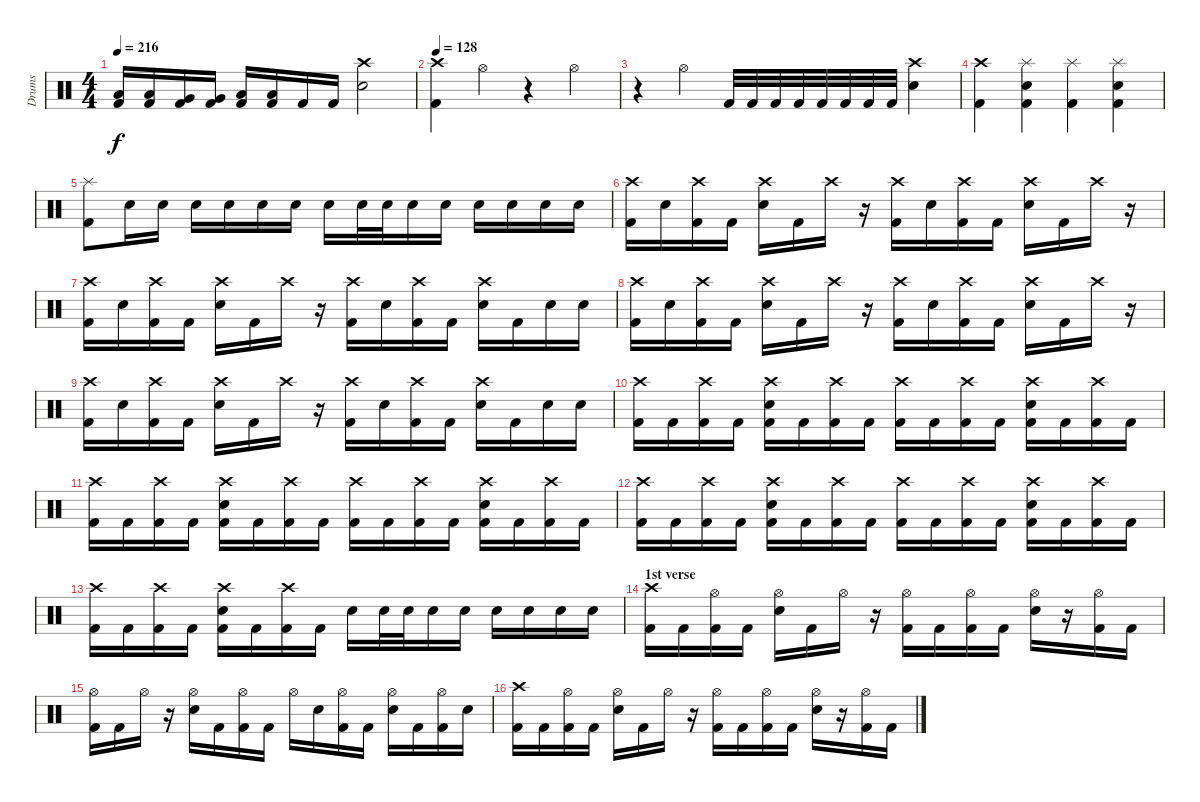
\track ("Drums" "Drums") {instrument percussion}
\staff {score}
\articulation defaults
\ts (4 4)
\tempo 216
\clef neutral
\ks c
("Low Tom (hit)" "Kick (hit) 2").16{dy f} ("Low Tom (hit)" "Kick (hit) 2").16 ("Very Low Tom (hit)" "Kick (hit) 2").16 ("Very Low Tom (hit)" "Kick (hit) 2").16 ("Low Floor Tom (hit)" "Kick (hit) 2").16 ("Low Floor Tom (hit)" "Kick (hit) 2").16 "Kick (hit) 2".16 "Kick (hit) 2".16 ("Crash high (hit)" "Electric Snare (hit)").2 |
\tempo 128
("Crash high (hit)" "Kick (hit) 2").4 "Hi-Hat (open)".4 r.4 "Hi-Hat (open)".4 |
r.4 "Hi-Hat (open)".4 "Kick (hit) 2".32 "Kick (hit) 2".32 "Kick (hit) 2".32 "Kick (hit) 2".32 "Kick (hit) 2".32 "Kick (hit) 2".32 "Kick (hit) 2".32 "Kick (hit) 2".32 ("Crash high (hit)" "Electric Snare (hit)").4 |
("Crash high (hit)" "Kick (hit) 2").4 ("Splash (hit)" "Electric Snare (hit)" "Kick (hit) 2").4 ("Splash (hit)" "Kick (hit) 2").4 ("Splash (hit)" "Electric Snare (hit)" "Kick (hit) 2").4 |
("Splash (hit)" "Kick (hit) 2").8 "Electric Snare (hit)".16 "Electric Snare (hit)".16 "Electric Snare (hit)".16 "Electric Snare (hit)".16 "Electric Snare (hit)".16 "Electric Snare (hit)".16 "Electric Snare (hit)".16 "Electric Snare (hit)".32 "Electric Snare (hit)".32 "Electric Snare (hit)".16 "Electric Snare (hit)".16 "Electric Snare (hit)".16 "Electric Snare (hit)".16 "Electric Snare (hit)".16 "Electric Snare (hit)".16 |
("Crash high (hit)" "Kick (hit) 2").16 "Electric Snare (hit)".16 ("Crash high (hit)" "Kick (hit) 2").16 "Kick (hit) 2".16 ("Crash high (hit)" "Electric Snare (hit)").16 "Kick (hit) 2".16 "Crash high (hit)".16 r.16 ("Crash high (hit)" "Kick (hit) 2").16 "Electric Snare (hit)".16 ("Crash high (hit)" "Kick (hit) 2").16 "Kick (hit) 2".16 ("Crash high (hit)" "Electric Snare (hit)").16 "Kick (hit) 2".16 "Crash high (hit)".16 r.16 |
("Crash high (hit)" "Kick (hit) 2").16 "Electric Snare (hit)".16 ("Crash high (hit)" "Kick (hit) 2").16 "Kick (hit) 2".16 ("Crash high (hit)" "Electric Snare (hit)").16 "Kick (hit) 2".16 "Crash high (hit)".16 r.16 ("Crash high (hit)" "Kick (hit) 2").16 "Electric Snare (hit)".16 ("Crash high (hit)" "Kick (hit) 2").16 "Kick (hit) 2".16 ("Crash high (hit)" "Electric Snare (hit)").16 "Kick (hit) 2".16 "Electric Snare (hit)".16 "Electric Snare (hit)".16 |
("Crash high (hit)" "Kick (hit) 2").16 "Electric Snare (hit)".16 ("Crash high (hit)" "Kick (hit) 2").16 "Kick (hit) 2".16 ("Crash high (hit)" "Electric Snare (hit)").16 "Kick (hit) 2".16 "Crash high (hit)".16 r.16 ("Crash high (hit)" "Kick (hit) 2").16 "Electric Snare (hit)".16 ("Crash high (hit)" "Kick (hit) 2").16 "Kick (hit) 2".16 ("Crash high (hit)" "Electric Snare (hit)").16 "Kick (hit) 2".16 "Crash high (hit)".16 r.16 |
("Crash high (hit)" "Kick (hit) 2").16 "Electric Snare (hit)".16 ("Crash high (hit)" "Kick (hit) 2").16 "Kick (hit) 2".16 ("Crash high (hit)" "Electric Snare (hit)").16 "Kick (hit) 2".16 "Crash high (hit)".16 r.16 ("Crash high (hit)" "Kick (hit) 2").16 "Electric Snare (hit)".16 ("Crash high (hit)" "Kick (hit) 2").16 "Kick (hit) 2".16 ("Crash high (hit)" "Electric Snare (hit)").16 "Kick (hit) 2".16 "Electric Snare (hit)".16 "Electric Snare (hit)".16 |
("Crash high (hit)" "Kick (hit) 2").16 "Kick (hit) 2".16 ("Crash high (hit)" "Kick (hit) 2").16 "Kick (hit) 2".16 ("Crash high (hit)" "Electric Snare (hit)" "Kick (hit) 2").16 "Kick (hit) 2".16 ("Crash high (hit)" "Kick (hit) 2").16 "Kick (hit) 2".16 ("Crash high (hit)" "Kick (hit) 2").16 "Kick (hit) 2".16 ("Crash high (hit)" "Kick (hit) 2").16 "Kick (hit) 2".16 ("Crash high (hit)" "Electric Snare (hit)" "Kick (hit) 2").16 "Kick (hit) 2".16 ("Crash high (hit)" "Kick (hit) 2").16 "Kick (hit) 2".16 |
("Crash high (hit)" "Kick (hit) 2").16 "Kick (hit) 2".16 ("Crash high (hit)" "Kick (hit) 2").16 "Kick (hit) 2".16 ("Crash high (hit)" "Electric Snare (hit)" "Kick (hit) 2").16 "Kick (hit) 2".16 ("Crash high (hit)" "Kick (hit) 2").16 "Kick (hit) 2".16 ("Crash high (hit)" "Kick (hit) 2").16 "Kick (hit) 2".16 ("Crash high (hit)" "Kick (hit) 2").16 "Kick (hit) 2".16 ("Crash high (hit)" "Electric Snare (hit)" "Kick (hit) 2").16 "Kick (hit) 2".16 ("Crash high (hit)" "Kick (hit) 2").16 "Kick (hit) 2".16 |
("Crash high (hit)" "Kick (hit) 2").16 "Kick (hit) 2".16 ("Crash high (hit)" "Kick (hit) 2").16 "Kick (hit) 2".16 ("Crash high (hit)" "Electric Snare (hit)" "Kick (hit) 2").16 "Kick (hit) 2".16 ("Crash high (hit)" "Kick (hit) 2").16 "Kick (hit) 2".16 ("Crash high (hit)" "Kick (hit) 2").16 "Kick (hit) 2".16 ("Crash high (hit)" "Kick (hit) 2").16 "Kick (hit) 2".16 ("Crash high (hit)" "Electric Snare (hit)" "Kick (hit) 2").16 "Kick (hit) 2".16 ("Crash high (hit)" "Kick (hit) 2").16 "Kick (hit) 2".16 |
("Crash high (hit)" "Kick (hit) 2").16 "Kick (hit) 2".16 ("Crash high (hit)" "Kick (hit) 2").16 "Kick (hit) 2".16 ("Crash high (hit)" "Electric Snare (hit)" "Kick (hit) 2").16 "Kick (hit) 2".16 ("Crash high (hit)" "Kick (hit) 2").16 "Kick (hit) 2".16 "Electric Snare (hit)".16 "Electric Snare (hit)".32 "Electric Snare (hit)".32 "Electric Snare (hit)".16 "Electric Snare (hit)".16 "Electric Snare (hit)".16 "Electric Snare (hit)".16 "Electric Snare (hit)".16 "Electric Snare (hit)".16 |
\section ("" "1st verse")
("Crash high (hit)" "Kick (hit) 2").16 "Kick (hit) 2".16 ("Hi-Hat (open)" "Kick (hit) 2").16 "Kick (hit) 2".16 ("Hi-Hat (open)" "Electric Snare (hit)").16 "Kick (hit) 2".16 "Hi-Hat (open)".16 r.16 ("Hi-Hat (open)" "Kick (hit) 2").16 "Kick (hit) 2".16 ("Hi-Hat (open)" "Kick (hit) 2").16 "Kick (hit) 2".16 ("Hi-Hat (open)" "Electric Snare (hit)").16 r.16 ("Hi-Hat (open)" "Kick (hit) 2").16 "Kick (hit) 2".16 |
("Hi-Hat (open)" "Kick (hit) 2").16 "Kick (hit) 2".16 "Hi-Hat (open)".16 r.16 ("Hi-Hat (open)" "Electric Snare (hit)").16 "Kick (hit) 2".16 ("Hi-Hat (open)" "Kick (hit) 2").16 "Kick (hit) 2".16 "Hi-Hat (open)".16 "Electric Snare (hit)".16 ("Hi-Hat (open)" "Kick (hit) 2").16 "Kick (hit) 2".16 ("Hi-Hat (open)" "Electric Snare (hit)").16 "Kick (hit) 2".16 ("Hi-Hat (open)" "Kick (hit) 2").16 "Electric Snare (hit)".16 |
("Crash high (hit)" "Kick (hit) 2").16 "Kick (hit) 2".16 ("Hi-Hat (open)" "Kick (hit) 2").16 "Kick (hit) 2".16 ("Hi-Hat (open)" "Electric Snare (hit)").16 "Kick (hit) 2".16 "Hi-Hat (open)".16 r.16 ("Hi-Hat (open)" "Kick (hit) 2").16 "Kick (hit) 2".16 ("Hi-Hat (open)" "Kick (hit) 2").16 "Kick (hit) 2".16 ("Hi-Hat (open)" "Electric Snare (hit)").16 r.16 ("Hi-Hat (open)" "Kick (hit) 2").16 "Kick (hit) 2".16
